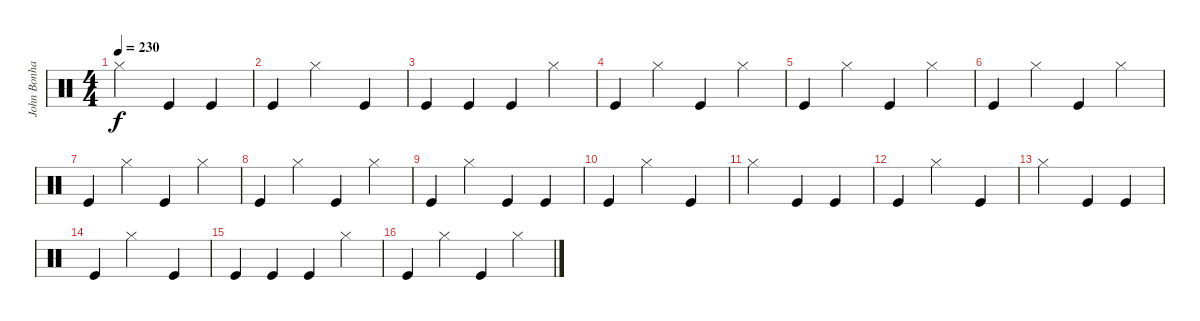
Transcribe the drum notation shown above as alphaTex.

\track ("John Bonham" "John Bonha") {instrument percussion}
\staff {score}
\articulation defaults
\ts (4 4)
\tempo 230
\clef neutral
\ks c "Hi-Hat (closed)".2{dy f} "Kick (hit)".4 "Kick (hit)".4
|
"Kick (hit)".4 "Hi-Hat (closed)".2 "Kick (hit)".4 |
"Kick (hit)".4 "Kick (hit)".4 "Kick (hit)".4 "Hi-Hat (closed)".4 |
"Kick (hit)".4 "Hi-Hat (closed)".4 "Kick (hit)".4 "Hi-Hat (closed)".4 |
"Kick (hit)".4 "Hi-Hat (closed)".4 "Kick (hit)".4 "Hi-Hat (closed)".4 |
"Kick (hit)".4 "Hi-Hat (closed)".4 "Kick (hit)".4 "Hi-Hat (closed)".4 |
"Kick (hit)".4 "Hi-Hat (closed)".4 "Kick (hit)".4 "Hi-Hat (closed)".4 |
"Kick (hit)".4 "Hi-Hat (closed)".4 "Kick (hit)".4 "Hi-Hat (closed)".4 |
"Kick (hit)".4 "Hi-Hat (closed)".4 "Kick (hit)".4 "Kick (hit)".4 |
"Kick (hit)".4 "Hi-Hat (closed)".2 "Kick (hit)".4 |
"Hi-Hat (closed)".2 "Kick (hit)".4 "Kick (hit)".4 |
"Kick (hit)".4 "Hi-Hat (closed)".2 "Kick (hit)".4 |
"Hi-Hat (closed)".2 "Kick (hit)".4 "Kick (hit)".4 |
"Kick (hit)".4 "Hi-Hat (closed)".2 "Kick (hit)".4 |
"Kick (hit)".4 "Kick (hit)".4 "Kick (hit)".4 "Hi-Hat (closed)".4 |
"Kick (hit)".4 "Hi-Hat (closed)".4 "Kick (hit)".4 "Hi-Hat (closed)".4
